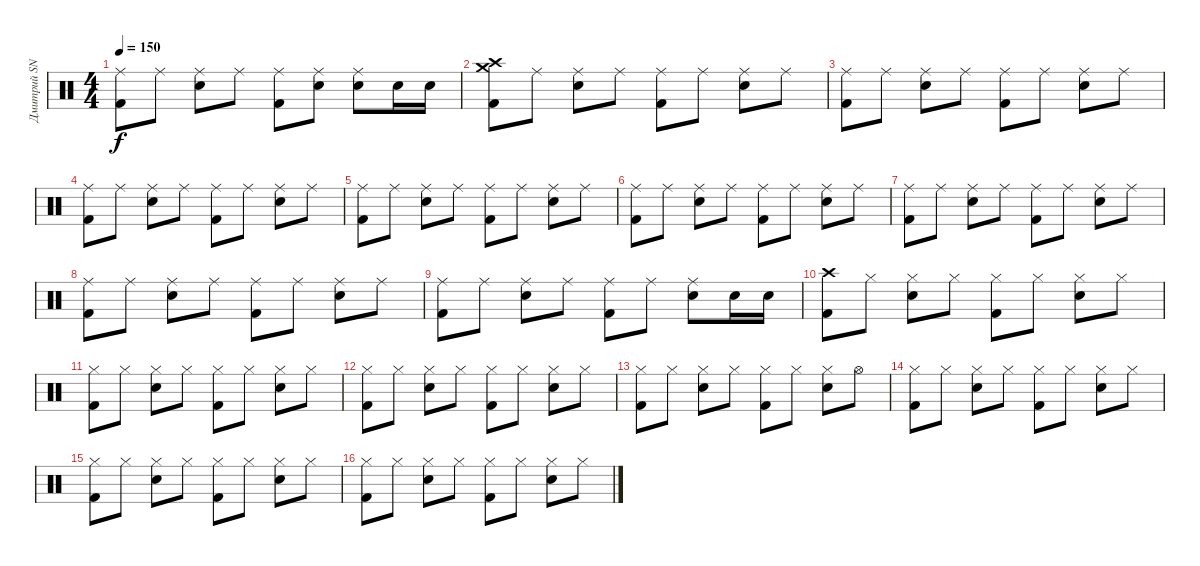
\track ("Дмитрий SNAKE Хакимов" "Дмитрий SN") {instrument percussion}
\staff {score}
\articulation defaults
\ts (4 4)
\tempo 150
\clef neutral
\ks c
("Ride (middle)" "Kick (hit) 2").8{dy f} "Ride (middle)".8 ("Ride (middle)" "Snare (hit) 2").8 "Ride (middle)".8 ("Ride (middle)" "Kick (hit) 2").8 ("Ride (middle)" "Snare (hit) 2").8 ("Ride (middle)" "Snare (hit) 2").8 "Snare (hit) 2".16 "Snare (hit) 2".16 |
("Crash high (hit)" "Crash medium (hit)" "Kick (hit) 2").8 "Ride (middle)".8 ("Ride (middle)" "Snare (hit) 2").8 "Ride (middle)".8 ("Ride (middle)" "Kick (hit) 2").8 "Ride (middle)".8 ("Ride (middle)" "Snare (hit) 2").8 "Ride (middle)".8 |
("Ride (middle)" "Kick (hit) 2").8 "Ride (middle)".8 ("Ride (middle)" "Snare (hit) 2").8 "Ride (middle)".8 ("Ride (middle)" "Kick (hit) 2").8 "Ride (middle)".8 ("Ride (middle)" "Snare (hit) 2").8 "Ride (middle)".8 |
("Ride (middle)" "Kick (hit) 2").8 "Ride (middle)".8 ("Ride (middle)" "Snare (hit) 2").8 "Ride (middle)".8 ("Ride (middle)" "Kick (hit) 2").8 "Ride (middle)".8 ("Ride (middle)" "Snare (hit) 2").8 "Ride (middle)".8 |
("Ride (middle)" "Kick (hit) 2").8 "Ride (middle)".8 ("Ride (middle)" "Snare (hit) 2").8 "Ride (middle)".8 ("Ride (middle)" "Kick (hit) 2").8 "Ride (middle)".8 ("Ride (middle)" "Snare (hit) 2").8 "Ride (middle)".8 |
("Ride (middle)" "Kick (hit) 2").8 "Ride (middle)".8 ("Ride (middle)" "Snare (hit) 2").8 "Ride (middle)".8 ("Ride (middle)" "Kick (hit) 2").8 "Ride (middle)".8 ("Ride (middle)" "Snare (hit) 2").8 "Ride (middle)".8 |
("Ride (middle)" "Kick (hit) 2").8 "Ride (middle)".8 ("Ride (middle)" "Snare (hit) 2").8 "Ride (middle)".8 ("Ride (middle)" "Kick (hit) 2").8 "Ride (middle)".8 ("Ride (middle)" "Snare (hit) 2").8 "Ride (middle)".8 |
("Ride (middle)" "Kick (hit) 2").8 "Ride (middle)".8 ("Ride (middle)" "Snare (hit) 2").8 "Ride (middle)".8 ("Ride (middle)" "Kick (hit) 2").8 "Ride (middle)".8 ("Ride (middle)" "Snare (hit) 2").8 "Ride (middle)".8 |
("Ride (middle)" "Kick (hit) 2").8 "Ride (middle)".8 ("Ride (middle)" "Snare (hit) 2").8 "Ride (middle)".8 ("Ride (middle)" "Kick (hit) 2").8 "Ride (middle)".8 ("Ride (middle)" "Snare (hit) 2").8 "Snare (hit) 2".16 "Snare (hit) 2".16 |
("Crash high (hit)" "Kick (hit) 2").8 "Hi-Hat (closed)".8 ("Hi-Hat (closed)" "Snare (hit) 2").8 "Hi-Hat (closed)".8 ("Hi-Hat (closed)" "Kick (hit) 2").8 "Hi-Hat (closed)".8 ("Hi-Hat (closed)" "Snare (hit) 2").8 "Hi-Hat (closed)".8 |
("Hi-Hat (closed)" "Kick (hit) 2").8 "Hi-Hat (closed)".8 ("Hi-Hat (closed)" "Snare (hit) 2").8 "Hi-Hat (closed)".8 ("Hi-Hat (closed)" "Kick (hit) 2").8 "Hi-Hat (closed)".8 ("Hi-Hat (closed)" "Snare (hit) 2").8 "Hi-Hat (closed)".8 |
("Hi-Hat (closed)" "Kick (hit) 2").8 "Hi-Hat (closed)".8 ("Hi-Hat (closed)" "Snare (hit) 2").8 "Hi-Hat (closed)".8 ("Hi-Hat (closed)" "Kick (hit) 2").8 "Hi-Hat (closed)".8 ("Hi-Hat (closed)" "Snare (hit) 2").8 "Hi-Hat (closed)".8 |
("Hi-Hat (closed)" "Kick (hit) 2").8 "Hi-Hat (closed)".8 ("Hi-Hat (closed)" "Snare (hit) 2").8 "Hi-Hat (closed)".8 ("Hi-Hat (closed)" "Kick (hit) 2").8 "Hi-Hat (closed)".8 ("Hi-Hat (closed)" "Snare (hit) 2").8 "Hi-Hat (open)".8 |
("Hi-Hat (closed)" "Kick (hit) 2").8 "Hi-Hat (closed)".8 ("Hi-Hat (closed)" "Snare (hit) 2").8 "Hi-Hat (closed)".8 ("Hi-Hat (closed)" "Kick (hit) 2").8 "Hi-Hat (closed)".8 ("Hi-Hat (closed)" "Snare (hit) 2").8 "Hi-Hat (closed)".8 |
("Hi-Hat (closed)" "Kick (hit) 2").8 "Hi-Hat (closed)".8 ("Hi-Hat (closed)" "Snare (hit) 2").8 "Hi-Hat (closed)".8 ("Hi-Hat (closed)" "Kick (hit) 2").8 "Hi-Hat (closed)".8 ("Hi-Hat (closed)" "Snare (hit) 2").8 "Hi-Hat (closed)".8 |
("Hi-Hat (closed)" "Kick (hit) 2").8 "Hi-Hat (closed)".8 ("Hi-Hat (closed)" "Snare (hit) 2").8 "Hi-Hat (closed)".8 ("Hi-Hat (closed)" "Kick (hit) 2").8 "Hi-Hat (closed)".8 ("Hi-Hat (closed)" "Snare (hit) 2").8 "Hi-Hat (closed)".8
